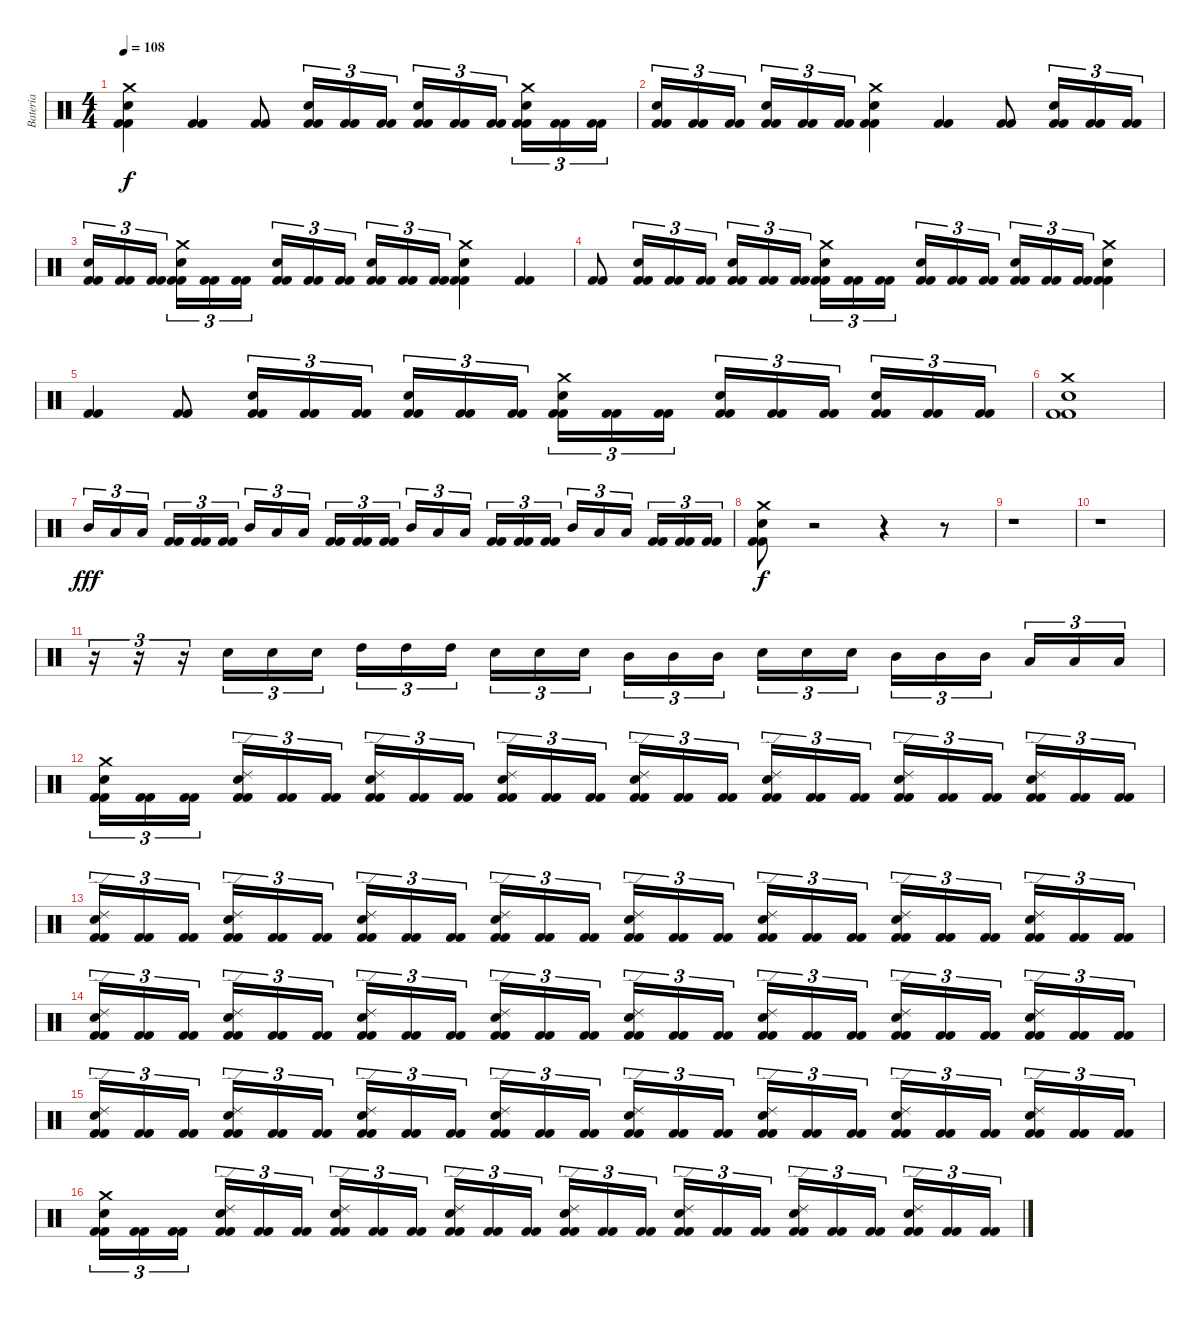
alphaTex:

\track ("Bateria" "Bateria") {instrument percussion}
\staff {score}
\articulation defaults
\ts (4 4)
\tempo 108
\clef neutral
\ks c
("Kick (hit) 2" "Kick (hit) 2" "Snare (hit) 2" "Crash medium (hit)").4{dy f} ("Kick (hit) 2" "Kick (hit) 2").4 ("Kick (hit) 2" "Kick (hit) 2").8 ("Kick (hit) 2" "Kick (hit) 2" "Snare (hit) 2").16{tu (3 2)} ("Kick (hit) 2" "Kick (hit) 2").16{tu (3 2)} ("Kick (hit) 2" "Kick (hit) 2").16{tu (3 2)} ("Kick (hit) 2" "Kick (hit) 2" "Snare (hit) 2").16{tu (3 2)} ("Kick (hit) 2" "Kick (hit) 2").16{tu (3 2)} ("Kick (hit) 2" "Kick (hit) 2").16{tu (3 2)} ("Kick (hit) 2" "Kick (hit) 2" "Snare (hit) 2" "Crash medium (hit)").16{tu (3 2)} ("Kick (hit) 2" "Kick (hit) 2").16{tu (3 2)} ("Kick (hit) 2" "Kick (hit) 2").16{tu (3 2)} |
("Kick (hit) 2" "Kick (hit) 2" "Snare (hit) 2").16{tu (3 2)} ("Kick (hit) 2" "Kick (hit) 2").16{tu (3 2)} ("Kick (hit) 2" "Kick (hit) 2").16{tu (3 2)} ("Kick (hit) 2" "Kick (hit) 2" "Snare (hit) 2").16{tu (3 2)} ("Kick (hit) 2" "Kick (hit) 2").16{tu (3 2)} ("Kick (hit) 2" "Kick (hit) 2").16{tu (3 2)} ("Kick (hit) 2" "Kick (hit) 2" "Snare (hit) 2" "Crash medium (hit)").4 ("Kick (hit) 2" "Kick (hit) 2").4 ("Kick (hit) 2" "Kick (hit) 2").8 ("Kick (hit) 2" "Kick (hit) 2" "Snare (hit) 2").16{tu (3 2)} ("Kick (hit) 2" "Kick (hit) 2").16{tu (3 2)} ("Kick (hit) 2" "Kick (hit) 2").16{tu (3 2)} |
("Kick (hit) 2" "Kick (hit) 2" "Snare (hit) 2").16{tu (3 2)} ("Kick (hit) 2" "Kick (hit) 2").16{tu (3 2)} ("Kick (hit) 2" "Kick (hit) 2").16{tu (3 2)} ("Kick (hit) 2" "Kick (hit) 2" "Snare (hit) 2" "Crash medium (hit)").16{tu (3 2)} ("Kick (hit) 2" "Kick (hit) 2").16{tu (3 2)} ("Kick (hit) 2" "Kick (hit) 2").16{tu (3 2)} ("Kick (hit) 2" "Kick (hit) 2" "Snare (hit) 2").16{tu (3 2)} ("Kick (hit) 2" "Kick (hit) 2").16{tu (3 2)} ("Kick (hit) 2" "Kick (hit) 2").16{tu (3 2)} ("Kick (hit) 2" "Kick (hit) 2" "Snare (hit) 2").16{tu (3 2)} ("Kick (hit) 2" "Kick (hit) 2").16{tu (3 2)} ("Kick (hit) 2" "Kick (hit) 2").16{tu (3 2)} ("Kick (hit) 2" "Kick (hit) 2" "Snare (hit) 2" "Crash medium (hit)").4 ("Kick (hit) 2" "Kick (hit) 2").4 |
("Kick (hit) 2" "Kick (hit) 2").8 ("Kick (hit) 2" "Kick (hit) 2" "Snare (hit) 2").16{tu (3 2)} ("Kick (hit) 2" "Kick (hit) 2").16{tu (3 2)} ("Kick (hit) 2" "Kick (hit) 2").16{tu (3 2)} ("Kick (hit) 2" "Kick (hit) 2" "Snare (hit) 2").16{tu (3 2)} ("Kick (hit) 2" "Kick (hit) 2").16{tu (3 2)} ("Kick (hit) 2" "Kick (hit) 2").16{tu (3 2)} ("Kick (hit) 2" "Kick (hit) 2" "Snare (hit) 2" "Crash medium (hit)").16{tu (3 2)} ("Kick (hit) 2" "Kick (hit) 2").16{tu (3 2)} ("Kick (hit) 2" "Kick (hit) 2").16{tu (3 2)} ("Kick (hit) 2" "Kick (hit) 2" "Snare (hit) 2").16{tu (3 2)} ("Kick (hit) 2" "Kick (hit) 2").16{tu (3 2)} ("Kick (hit) 2" "Kick (hit) 2").16{tu (3 2)} ("Kick (hit) 2" "Kick (hit) 2" "Snare (hit) 2").16{tu (3 2)} ("Kick (hit) 2" "Kick (hit) 2").16{tu (3 2)} ("Kick (hit) 2" "Kick (hit) 2").16{tu (3 2)} ("Kick (hit) 2" "Kick (hit) 2" "Snare (hit) 2" "Crash medium (hit)").4 |
("Kick (hit) 2" "Kick (hit) 2").4 ("Kick (hit) 2" "Kick (hit) 2").8 ("Kick (hit) 2" "Kick (hit) 2" "Snare (hit) 2").16{tu (3 2)} ("Kick (hit) 2" "Kick (hit) 2").16{tu (3 2)} ("Kick (hit) 2" "Kick (hit) 2").16{tu (3 2)} ("Kick (hit) 2" "Kick (hit) 2" "Snare (hit) 2").16{tu (3 2)} ("Kick (hit) 2" "Kick (hit) 2").16{tu (3 2)} ("Kick (hit) 2" "Kick (hit) 2").16{tu (3 2)} ("Kick (hit) 2" "Kick (hit) 2" "Snare (hit) 2" "Crash medium (hit)").16{tu (3 2)} ("Kick (hit) 2" "Kick (hit) 2").16{tu (3 2)} ("Kick (hit) 2" "Kick (hit) 2").16{tu (3 2)} ("Kick (hit) 2" "Kick (hit) 2" "Snare (hit) 2").16{tu (3 2)} ("Kick (hit) 2" "Kick (hit) 2").16{tu (3 2)} ("Kick (hit) 2" "Kick (hit) 2").16{tu (3 2)} ("Kick (hit) 2" "Kick (hit) 2" "Snare (hit) 2").16{tu (3 2)} ("Kick (hit) 2" "Kick (hit) 2").16{tu (3 2)} ("Kick (hit) 2" "Kick (hit) 2").16{tu (3 2)} |
("Kick (hit) 2" "Kick (hit) 2" "Snare (hit) 2" "Crash medium (hit)").1 |
"Mid Tom (hit)".16{tu (3 2) dy fff} "Low Tom (hit)".16{tu (3 2)} "Low Tom (hit)".16{tu (3 2)} ("Kick (hit) 2" "Kick (hit) 2").16{tu (3 2)} ("Kick (hit) 2" "Kick (hit) 2").16{tu (3 2)} ("Kick (hit) 2" "Kick (hit) 2").16{tu (3 2)} "Mid Tom (hit)".16{tu (3 2)} "Low Tom (hit)".16{tu (3 2)} "Low Tom (hit)".16{tu (3 2)} ("Kick (hit) 2" "Kick (hit) 2").16{tu (3 2)} ("Kick (hit) 2" "Kick (hit) 2").16{tu (3 2)} ("Kick (hit) 2" "Kick (hit) 2").16{tu (3 2)} "Mid Tom (hit)".16{tu (3 2)} "Low Tom (hit)".16{tu (3 2)} "Low Tom (hit)".16{tu (3 2)} ("Kick (hit) 2" "Kick (hit) 2").16{tu (3 2)} ("Kick (hit) 2" "Kick (hit) 2").16{tu (3 2)} ("Kick (hit) 2" "Kick (hit) 2").16{tu (3 2)} "Mid Tom (hit)".16{tu (3 2)} "Low Tom (hit)".16{tu (3 2)} "Low Tom (hit)".16{tu (3 2)} ("Kick (hit) 2" "Kick (hit) 2").16{tu (3 2)} ("Kick (hit) 2" "Kick (hit) 2").16{tu (3 2)} ("Kick (hit) 2" "Kick (hit) 2").16{tu (3 2)} |
("Kick (hit) 2" "Kick (hit) 2" "Snare (hit) 2" "Crash medium (hit)").8{dy f} r.2 r.4 r.8 |
r.1 |
r.1 |
r.16{tu (3 2)} r.16{tu (3 2)} r.16{tu (3 2)} "Snare (hit) 2".16{tu (3 2)} "Snare (hit) 2".16{tu (3 2)} "Snare (hit) 2".16{tu (3 2)} "High Tom (hit)".16{tu (3 2)} "High Tom (hit)".16{tu (3 2)} "High Tom (hit)".16{tu (3 2)} "Snare (hit) 2".16{tu (3 2)} "Snare (hit) 2".16{tu (3 2)} "Snare (hit) 2".16{tu (3 2)} "Mid Tom (hit)".16{tu (3 2)} "Mid Tom (hit)".16{tu (3 2)} "Mid Tom (hit)".16{tu (3 2)} "Snare (hit) 2".16{tu (3 2)} "Snare (hit) 2".16{tu (3 2)} "Snare (hit) 2".16{tu (3 2)} "Mid Tom (hit)".16{tu (3 2)} "Mid Tom (hit)".16{tu (3 2)} "Mid Tom (hit)".16{tu (3 2)} "Low Tom (hit)".16{tu (3 2)} "Low Tom (hit)".16{tu (3 2)} "Low Tom (hit)".16{tu (3 2)} |
("Kick (hit) 2" "Kick (hit) 2" "Snare (hit) 2" "Crash medium (hit)").16{tu (3 2)} ("Kick (hit) 2" "Kick (hit) 2").16{tu (3 2)} ("Kick (hit) 2" "Kick (hit) 2").16{tu (3 2)} ("Kick (hit) 2" "Kick (hit) 2" "Snare (hit) 2" "Ride (edge) 2").16{tu (3 2)} ("Kick (hit) 2" "Kick (hit) 2").16{tu (3 2)} ("Kick (hit) 2" "Kick (hit) 2").16{tu (3 2)} ("Kick (hit) 2" "Kick (hit) 2" "Snare (hit) 2" "Ride (edge) 2").16{tu (3 2)} ("Kick (hit) 2" "Kick (hit) 2").16{tu (3 2)} ("Kick (hit) 2" "Kick (hit) 2").16{tu (3 2)} ("Kick (hit) 2" "Kick (hit) 2" "Snare (hit) 2" "Ride (edge) 2").16{tu (3 2)} ("Kick (hit) 2" "Kick (hit) 2").16{tu (3 2)} ("Kick (hit) 2" "Kick (hit) 2").16{tu (3 2)} ("Kick (hit) 2" "Kick (hit) 2" "Snare (hit) 2" "Ride (edge) 2").16{tu (3 2)} ("Kick (hit) 2" "Kick (hit) 2").16{tu (3 2)} ("Kick (hit) 2" "Kick (hit) 2").16{tu (3 2)} ("Kick (hit) 2" "Kick (hit) 2" "Snare (hit) 2" "Ride (edge) 2").16{tu (3 2)} ("Kick (hit) 2" "Kick (hit) 2").16{tu (3 2)} ("Kick (hit) 2" "Kick (hit) 2").16{tu (3 2)} ("Kick (hit) 2" "Kick (hit) 2" "Snare (hit) 2" "Ride (edge) 2").16{tu (3 2)} ("Kick (hit) 2" "Kick (hit) 2").16{tu (3 2)} ("Kick (hit) 2" "Kick (hit) 2").16{tu (3 2)} ("Kick (hit) 2" "Kick (hit) 2" "Snare (hit) 2" "Ride (edge) 2").16{tu (3 2)} ("Kick (hit) 2" "Kick (hit) 2").16{tu (3 2)} ("Kick (hit) 2" "Kick (hit) 2").16{tu (3 2)} |
("Kick (hit) 2" "Kick (hit) 2" "Snare (hit) 2" "Ride (edge) 2").16{tu (3 2)} ("Kick (hit) 2" "Kick (hit) 2").16{tu (3 2)} ("Kick (hit) 2" "Kick (hit) 2").16{tu (3 2)} ("Kick (hit) 2" "Kick (hit) 2" "Snare (hit) 2" "Ride (edge) 2").16{tu (3 2)} ("Kick (hit) 2" "Kick (hit) 2").16{tu (3 2)} ("Kick (hit) 2" "Kick (hit) 2").16{tu (3 2)} ("Kick (hit) 2" "Kick (hit) 2" "Snare (hit) 2" "Ride (edge) 2").16{tu (3 2)} ("Kick (hit) 2" "Kick (hit) 2").16{tu (3 2)} ("Kick (hit) 2" "Kick (hit) 2").16{tu (3 2)} ("Kick (hit) 2" "Kick (hit) 2" "Snare (hit) 2" "Ride (edge) 2").16{tu (3 2)} ("Kick (hit) 2" "Kick (hit) 2").16{tu (3 2)} ("Kick (hit) 2" "Kick (hit) 2").16{tu (3 2)} ("Kick (hit) 2" "Kick (hit) 2" "Snare (hit) 2" "Ride (edge) 2").16{tu (3 2)} ("Kick (hit) 2" "Kick (hit) 2").16{tu (3 2)} ("Kick (hit) 2" "Kick (hit) 2").16{tu (3 2)} ("Kick (hit) 2" "Kick (hit) 2" "Snare (hit) 2" "Ride (edge) 2").16{tu (3 2)} ("Kick (hit) 2" "Kick (hit) 2").16{tu (3 2)} ("Kick (hit) 2" "Kick (hit) 2").16{tu (3 2)} ("Kick (hit) 2" "Kick (hit) 2" "Snare (hit) 2" "Ride (edge) 2").16{tu (3 2)} ("Kick (hit) 2" "Kick (hit) 2").16{tu (3 2)} ("Kick (hit) 2" "Kick (hit) 2").16{tu (3 2)} ("Kick (hit) 2" "Kick (hit) 2" "Snare (hit) 2" "Ride (edge) 2").16{tu (3 2)} ("Kick (hit) 2" "Kick (hit) 2").16{tu (3 2)} ("Kick (hit) 2" "Kick (hit) 2").16{tu (3 2)} |
("Kick (hit) 2" "Kick (hit) 2" "Snare (hit) 2" "Ride (edge) 2").16{tu (3 2)} ("Kick (hit) 2" "Kick (hit) 2").16{tu (3 2)} ("Kick (hit) 2" "Kick (hit) 2").16{tu (3 2)} ("Kick (hit) 2" "Kick (hit) 2" "Snare (hit) 2" "Ride (edge) 2").16{tu (3 2)} ("Kick (hit) 2" "Kick (hit) 2").16{tu (3 2)} ("Kick (hit) 2" "Kick (hit) 2").16{tu (3 2)} ("Kick (hit) 2" "Kick (hit) 2" "Snare (hit) 2" "Ride (edge) 2").16{tu (3 2)} ("Kick (hit) 2" "Kick (hit) 2").16{tu (3 2)} ("Kick (hit) 2" "Kick (hit) 2").16{tu (3 2)} ("Kick (hit) 2" "Kick (hit) 2" "Snare (hit) 2" "Ride (edge) 2").16{tu (3 2)} ("Kick (hit) 2" "Kick (hit) 2").16{tu (3 2)} ("Kick (hit) 2" "Kick (hit) 2").16{tu (3 2)} ("Kick (hit) 2" "Kick (hit) 2" "Snare (hit) 2" "Ride (edge) 2").16{tu (3 2)} ("Kick (hit) 2" "Kick (hit) 2").16{tu (3 2)} ("Kick (hit) 2" "Kick (hit) 2").16{tu (3 2)} ("Kick (hit) 2" "Kick (hit) 2" "Snare (hit) 2" "Ride (edge) 2").16{tu (3 2)} ("Kick (hit) 2" "Kick (hit) 2").16{tu (3 2)} ("Kick (hit) 2" "Kick (hit) 2").16{tu (3 2)} ("Kick (hit) 2" "Kick (hit) 2" "Snare (hit) 2" "Ride (edge) 2").16{tu (3 2)} ("Kick (hit) 2" "Kick (hit) 2").16{tu (3 2)} ("Kick (hit) 2" "Kick (hit) 2").16{tu (3 2)} ("Kick (hit) 2" "Kick (hit) 2" "Snare (hit) 2" "Ride (edge) 2").16{tu (3 2)} ("Kick (hit) 2" "Kick (hit) 2").16{tu (3 2)} ("Kick (hit) 2" "Kick (hit) 2").16{tu (3 2)} |
("Kick (hit) 2" "Kick (hit) 2" "Snare (hit) 2" "Ride (edge) 2").16{tu (3 2)} ("Kick (hit) 2" "Kick (hit) 2").16{tu (3 2)} ("Kick (hit) 2" "Kick (hit) 2").16{tu (3 2)} ("Kick (hit) 2" "Kick (hit) 2" "Snare (hit) 2" "Ride (edge) 2").16{tu (3 2)} ("Kick (hit) 2" "Kick (hit) 2").16{tu (3 2)} ("Kick (hit) 2" "Kick (hit) 2").16{tu (3 2)} ("Kick (hit) 2" "Kick (hit) 2" "Snare (hit) 2" "Ride (edge) 2").16{tu (3 2)} ("Kick (hit) 2" "Kick (hit) 2").16{tu (3 2)} ("Kick (hit) 2" "Kick (hit) 2").16{tu (3 2)} ("Kick (hit) 2" "Kick (hit) 2" "Snare (hit) 2" "Ride (edge) 2").16{tu (3 2)} ("Kick (hit) 2" "Kick (hit) 2").16{tu (3 2)} ("Kick (hit) 2" "Kick (hit) 2").16{tu (3 2)} ("Kick (hit) 2" "Kick (hit) 2" "Snare (hit) 2" "Ride (edge) 2").16{tu (3 2)} ("Kick (hit) 2" "Kick (hit) 2").16{tu (3 2)} ("Kick (hit) 2" "Kick (hit) 2").16{tu (3 2)} ("Kick (hit) 2" "Kick (hit) 2" "Snare (hit) 2" "Ride (edge) 2").16{tu (3 2)} ("Kick (hit) 2" "Kick (hit) 2").16{tu (3 2)} ("Kick (hit) 2" "Kick (hit) 2").16{tu (3 2)} ("Kick (hit) 2" "Kick (hit) 2" "Snare (hit) 2" "Ride (edge) 2").16{tu (3 2)} ("Kick (hit) 2" "Kick (hit) 2").16{tu (3 2)} ("Kick (hit) 2" "Kick (hit) 2").16{tu (3 2)} ("Kick (hit) 2" "Kick (hit) 2" "Snare (hit) 2" "Ride (edge) 2").16{tu (3 2)} ("Kick (hit) 2" "Kick (hit) 2").16{tu (3 2)} ("Kick (hit) 2" "Kick (hit) 2").16{tu (3 2)} |
("Kick (hit) 2" "Kick (hit) 2" "Snare (hit) 2" "Crash medium (hit)").16{tu (3 2)} ("Kick (hit) 2" "Kick (hit) 2").16{tu (3 2)} ("Kick (hit) 2" "Kick (hit) 2").16{tu (3 2)} ("Kick (hit) 2" "Kick (hit) 2" "Snare (hit) 2" "Ride (edge) 2").16{tu (3 2)} ("Kick (hit) 2" "Kick (hit) 2").16{tu (3 2)} ("Kick (hit) 2" "Kick (hit) 2").16{tu (3 2)} ("Kick (hit) 2" "Kick (hit) 2" "Snare (hit) 2" "Ride (edge) 2").16{tu (3 2)} ("Kick (hit) 2" "Kick (hit) 2").16{tu (3 2)} ("Kick (hit) 2" "Kick (hit) 2").16{tu (3 2)} ("Kick (hit) 2" "Kick (hit) 2" "Snare (hit) 2" "Ride (edge) 2").16{tu (3 2)} ("Kick (hit) 2" "Kick (hit) 2").16{tu (3 2)} ("Kick (hit) 2" "Kick (hit) 2").16{tu (3 2)} ("Kick (hit) 2" "Kick (hit) 2" "Snare (hit) 2" "Ride (edge) 2").16{tu (3 2)} ("Kick (hit) 2" "Kick (hit) 2").16{tu (3 2)} ("Kick (hit) 2" "Kick (hit) 2").16{tu (3 2)} ("Kick (hit) 2" "Kick (hit) 2" "Snare (hit) 2" "Ride (edge) 2").16{tu (3 2)} ("Kick (hit) 2" "Kick (hit) 2").16{tu (3 2)} ("Kick (hit) 2" "Kick (hit) 2").16{tu (3 2)} ("Kick (hit) 2" "Kick (hit) 2" "Snare (hit) 2" "Ride (edge) 2").16{tu (3 2)} ("Kick (hit) 2" "Kick (hit) 2").16{tu (3 2)} ("Kick (hit) 2" "Kick (hit) 2").16{tu (3 2)} ("Kick (hit) 2" "Kick (hit) 2" "Snare (hit) 2" "Ride (edge) 2").16{tu (3 2)} ("Kick (hit) 2" "Kick (hit) 2").16{tu (3 2)} ("Kick (hit) 2" "Kick (hit) 2").16{tu (3 2)}
